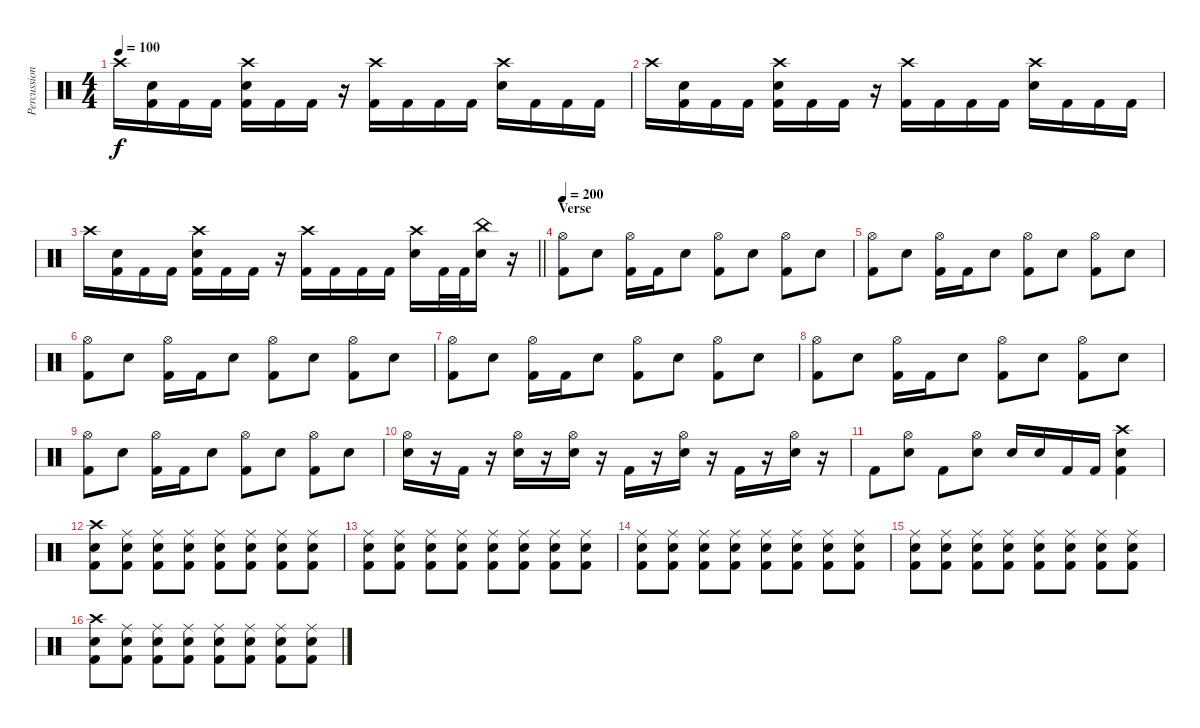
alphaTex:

\track ("Percussion" "Percussion") {instrument percussion}
\staff {score}
\articulation defaults
\ts (4 4)
\tempo 100
\clef neutral
\ks c "Crash high (hit)".16{dy f}
("Electric Snare (hit)" "Kick (hit) 2").16 "Kick (hit) 2".16 "Kick (hit) 2".16 ("Crash high (hit)" "Electric Snare (hit)" "Kick (hit) 2").16 "Kick (hit) 2".16 "Kick (hit) 2".16 r.16 ("Crash high (hit)" "Kick (hit) 2").16 "Kick (hit) 2".16 "Kick (hit) 2".16 "Kick (hit) 2".16 ("Crash high (hit)" "Electric Snare (hit)").16 "Kick (hit) 2".16 "Kick (hit) 2".16 "Kick (hit) 2".16 |
"Crash high (hit)".16 ("Electric Snare (hit)" "Kick (hit) 2").16 "Kick (hit) 2".16 "Kick (hit) 2".16 ("Crash high (hit)" "Electric Snare (hit)" "Kick (hit) 2").16 "Kick (hit) 2".16 "Kick (hit) 2".16 r.16 ("Crash high (hit)" "Kick (hit) 2").16 "Kick (hit) 2".16 "Kick (hit) 2".16 "Kick (hit) 2".16 ("Crash high (hit)" "Electric Snare (hit)").16 "Kick (hit) 2".16 "Kick (hit) 2".16 "Kick (hit) 2".16 |
\barLineRight lightlight "Crash high (hit)".16
("Electric Snare (hit)" "Kick (hit) 2").16 "Kick (hit) 2".16 "Kick (hit) 2".16 ("Crash high (hit)" "Electric Snare (hit)" "Kick (hit) 2").16 "Kick (hit) 2".16 "Kick (hit) 2".16 r.16 ("Crash high (hit)" "Kick (hit) 2").16 "Kick (hit) 2".16 "Kick (hit) 2".16 "Kick (hit) 2".16 ("Crash high (hit)" "Electric Snare (hit)").16 "Kick (hit) 2".32 "Kick (hit) 2".32 ("China (hit)" "Electric Snare (hit)").16 r.16 |
\section ("" "Verse")
\tempo 200
("Hi-Hat (open)" "Kick (hit) 2").8 "Electric Snare (hit)".8 ("Hi-Hat (open)" "Kick (hit) 2").16 "Kick (hit) 2".16 "Electric Snare (hit)".8 ("Hi-Hat (open)" "Kick (hit) 2").8 "Electric Snare (hit)".8 ("Hi-Hat (open)" "Kick (hit) 2").8 "Electric Snare (hit)".8 |
("Hi-Hat (open)" "Kick (hit) 2").8 "Electric Snare (hit)".8 ("Hi-Hat (open)" "Kick (hit) 2").16 "Kick (hit) 2".16 "Electric Snare (hit)".8 ("Hi-Hat (open)" "Kick (hit) 2").8 "Electric Snare (hit)".8 ("Hi-Hat (open)" "Kick (hit) 2").8 "Electric Snare (hit)".8 |
("Hi-Hat (open)" "Kick (hit) 2").8 "Electric Snare (hit)".8 ("Hi-Hat (open)" "Kick (hit) 2").16 "Kick (hit) 2".16 "Electric Snare (hit)".8 ("Hi-Hat (open)" "Kick (hit) 2").8 "Electric Snare (hit)".8 ("Hi-Hat (open)" "Kick (hit) 2").8 "Electric Snare (hit)".8 |
("Hi-Hat (open)" "Kick (hit) 2").8 "Electric Snare (hit)".8 ("Hi-Hat (open)" "Kick (hit) 2").16 "Kick (hit) 2".16 "Electric Snare (hit)".8 ("Hi-Hat (open)" "Kick (hit) 2").8 "Electric Snare (hit)".8 ("Hi-Hat (open)" "Kick (hit) 2").8 "Electric Snare (hit)".8 |
("Hi-Hat (open)" "Kick (hit) 2").8 "Electric Snare (hit)".8 ("Hi-Hat (open)" "Kick (hit) 2").16 "Kick (hit) 2".16 "Electric Snare (hit)".8 ("Hi-Hat (open)" "Kick (hit) 2").8 "Electric Snare (hit)".8 ("Hi-Hat (open)" "Kick (hit) 2").8 "Electric Snare (hit)".8 |
("Hi-Hat (open)" "Kick (hit) 2").8 "Electric Snare (hit)".8 ("Hi-Hat (open)" "Kick (hit) 2").16 "Kick (hit) 2".16 "Electric Snare (hit)".8 ("Hi-Hat (open)" "Kick (hit) 2").8 "Electric Snare (hit)".8 ("Hi-Hat (open)" "Kick (hit) 2").8 "Electric Snare (hit)".8 |
("Hi-Hat (open)" "Electric Snare (hit)").16 r.16 "Kick (hit) 2".16 r.16 ("Hi-Hat (open)" "Electric Snare (hit)").16 r.16 ("Hi-Hat (open)" "Electric Snare (hit)").16 r.16 "Kick (hit) 2".16 r.16 ("Hi-Hat (open)" "Electric Snare (hit)").16 r.16 "Kick (hit) 2".16 r.16 ("Hi-Hat (open)" "Electric Snare (hit)").16 r.16 |
"Kick (hit) 2".8 ("Hi-Hat (open)" "Electric Snare (hit)").8 "Kick (hit) 2".8 ("Hi-Hat (open)" "Electric Snare (hit)").8 "Electric Snare (hit)".16 "Electric Snare (hit)".16 "Kick (hit) 2".16 "Kick (hit) 2".16 ("Crash high (hit)" "Electric Snare (hit)" "Kick (hit) 2").4 |
("Crash high (hit)" "Electric Snare (hit)" "Kick (hit) 2").8 ("Ride (middle)" "Electric Snare (hit)" "Kick (hit) 2").8 ("Ride (middle)" "Electric Snare (hit)" "Kick (hit) 2").8 ("Ride (middle)" "Electric Snare (hit)" "Kick (hit) 2").8 ("Ride (middle)" "Electric Snare (hit)" "Kick (hit) 2").8 ("Ride (middle)" "Electric Snare (hit)" "Kick (hit) 2").8 ("Ride (middle)" "Electric Snare (hit)" "Kick (hit) 2").8 ("Ride (middle)" "Electric Snare (hit)" "Kick (hit) 2").8 |
("Ride (middle)" "Electric Snare (hit)" "Kick (hit) 2").8 ("Ride (middle)" "Electric Snare (hit)" "Kick (hit) 2").8 ("Ride (middle)" "Electric Snare (hit)" "Kick (hit) 2").8 ("Ride (middle)" "Electric Snare (hit)" "Kick (hit) 2").8 ("Ride (middle)" "Electric Snare (hit)" "Kick (hit) 2").8 ("Ride (middle)" "Electric Snare (hit)" "Kick (hit) 2").8 ("Ride (middle)" "Electric Snare (hit)" "Kick (hit) 2").8 ("Ride (middle)" "Electric Snare (hit)" "Kick (hit) 2").8 |
("Ride (middle)" "Electric Snare (hit)" "Kick (hit) 2").8 ("Ride (middle)" "Electric Snare (hit)" "Kick (hit) 2").8 ("Ride (middle)" "Electric Snare (hit)" "Kick (hit) 2").8 ("Ride (middle)" "Electric Snare (hit)" "Kick (hit) 2").8 ("Ride (middle)" "Electric Snare (hit)" "Kick (hit) 2").8 ("Ride (middle)" "Electric Snare (hit)" "Kick (hit) 2").8 ("Ride (middle)" "Electric Snare (hit)" "Kick (hit) 2").8 ("Ride (middle)" "Electric Snare (hit)" "Kick (hit) 2").8 |
("Ride (middle)" "Electric Snare (hit)" "Kick (hit) 2").8 ("Ride (middle)" "Electric Snare (hit)" "Kick (hit) 2").8 ("Ride (middle)" "Electric Snare (hit)" "Kick (hit) 2").8 ("Ride (middle)" "Electric Snare (hit)" "Kick (hit) 2").8 ("Ride (middle)" "Electric Snare (hit)" "Kick (hit) 2").8 ("Ride (middle)" "Electric Snare (hit)" "Kick (hit) 2").8 ("Ride (middle)" "Electric Snare (hit)" "Kick (hit) 2").8 ("Ride (middle)" "Electric Snare (hit)" "Kick (hit) 2").8 |
("Crash high (hit)" "Electric Snare (hit)" "Kick (hit) 2").8 ("Ride (middle)" "Electric Snare (hit)" "Kick (hit) 2").8 ("Ride (middle)" "Electric Snare (hit)" "Kick (hit) 2").8 ("Ride (middle)" "Electric Snare (hit)" "Kick (hit) 2").8 ("Ride (middle)" "Electric Snare (hit)" "Kick (hit) 2").8 ("Ride (middle)" "Electric Snare (hit)" "Kick (hit) 2").8 ("Ride (middle)" "Electric Snare (hit)" "Kick (hit) 2").8 ("Ride (middle)" "Electric Snare (hit)" "Kick (hit) 2").8
